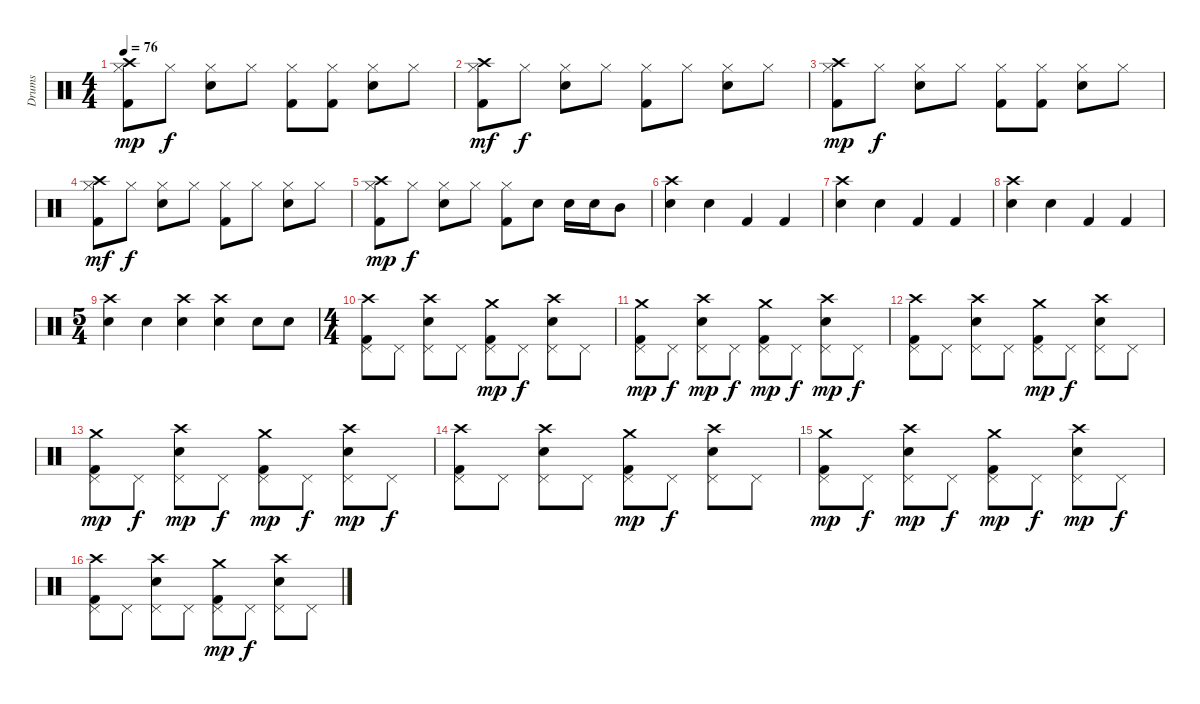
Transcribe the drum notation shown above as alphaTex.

\track ("Drums" "Drums") {instrument percussion}
\staff {score}
\articulation defaults
\ts (4 4)
\tempo 76
\clef neutral
\ks c
("Crash high (hit)" "Hi-Hat (closed)" "Kick (hit) 2").8{dy mp} "Hi-Hat (closed)".8{dy f} ("Hi-Hat (closed)" "Snare (hit) 2").8 "Hi-Hat (closed)".8 ("Hi-Hat (closed)" "Kick (hit) 2").8 ("Hi-Hat (closed)" "Kick (hit) 2").8 ("Hi-Hat (closed)" "Snare (hit) 2").8 "Hi-Hat (closed)".8 |
("Crash high (hit)" "Hi-Hat (closed)" "Kick (hit) 2").8{dy mf} "Hi-Hat (closed)".8{dy f} ("Hi-Hat (closed)" "Snare (hit) 2").8 "Hi-Hat (closed)".8 ("Hi-Hat (closed)" "Kick (hit) 2").8 "Hi-Hat (closed)".8 ("Hi-Hat (closed)" "Snare (hit) 2").8 "Hi-Hat (closed)".8 |
("Crash high (hit)" "Hi-Hat (closed)" "Kick (hit) 2").8{dy mp} "Hi-Hat (closed)".8{dy f} ("Hi-Hat (closed)" "Snare (hit) 2").8 "Hi-Hat (closed)".8 ("Hi-Hat (closed)" "Kick (hit) 2").8 ("Hi-Hat (closed)" "Kick (hit) 2").8 ("Hi-Hat (closed)" "Snare (hit) 2").8 "Hi-Hat (closed)".8 |
("Crash high (hit)" "Hi-Hat (closed)" "Kick (hit) 2").8{dy mf} "Hi-Hat (closed)".8{dy f} ("Hi-Hat (closed)" "Snare (hit) 2").8 "Hi-Hat (closed)".8 ("Hi-Hat (closed)" "Kick (hit) 2").8 "Hi-Hat (closed)".8 ("Hi-Hat (closed)" "Snare (hit) 2").8 "Hi-Hat (closed)".8 |
("Crash high (hit)" "Hi-Hat (closed)" "Kick (hit) 2").8{dy mp} "Hi-Hat (closed)".8{dy f} ("Hi-Hat (closed)" "Snare (hit) 2").8 "Hi-Hat (closed)".8 ("Hi-Hat (closed)" "Kick (hit) 2").8 "Snare (hit) 2".8 "Snare (hit) 2".16 "Snare (hit) 2".16 "Mid Tom (hit)".8 |
("Crash high (hit)" "Snare (hit) 2").4 "Snare (hit) 2".4 "Kick (hit) 2".4 "Kick (hit) 2".4 |
("Crash high (hit)" "Snare (hit) 2").4 "Snare (hit) 2".4 "Kick (hit) 2".4 "Kick (hit) 2".4 |
("Crash high (hit)" "Snare (hit) 2").4 "Snare (hit) 2".4 "Kick (hit) 2".4 "Kick (hit) 2".4 |
\ts (5 4)
("Crash high (hit)" "Snare (hit) 2").4 "Snare (hit) 2".4 ("Crash high (hit)" "Snare (hit) 2").4 ("Crash high (hit)" "Snare (hit) 2").4 "Snare (hit) 2".8 "Snare (hit) 2".8 |
\ts (4 4)
("Crash high (hit)" "Pedal Hi-Hat (hit)" "Kick (hit) 2").8 "Pedal Hi-Hat (hit)".8 ("Crash high (hit)" "Pedal Hi-Hat (hit)" "Snare (hit) 2").8 "Pedal Hi-Hat (hit)".8 ("Crash medium (hit)" "Pedal Hi-Hat (hit)" "Kick (hit) 2").8{dy mp} "Pedal Hi-Hat (hit)".8{dy f} ("Crash high (hit)" "Pedal Hi-Hat (hit)" "Snare (hit) 2").8 "Pedal Hi-Hat (hit)".8 |
("Crash medium (hit)" "Pedal Hi-Hat (hit)" "Kick (hit) 2").8{dy mp} "Pedal Hi-Hat (hit)".8{dy f} ("Crash high (hit)" "Pedal Hi-Hat (hit)" "Snare (hit) 2").8{dy mp} "Pedal Hi-Hat (hit)".8{dy f} ("Crash medium (hit)" "Pedal Hi-Hat (hit)" "Kick (hit) 2").8{dy mp} "Pedal Hi-Hat (hit)".8{dy f} ("Crash high (hit)" "Pedal Hi-Hat (hit)" "Snare (hit) 2").8{dy mp} "Pedal Hi-Hat (hit)".8{dy f} |
("Crash high (hit)" "Pedal Hi-Hat (hit)" "Kick (hit) 2").8 "Pedal Hi-Hat (hit)".8 ("Crash high (hit)" "Pedal Hi-Hat (hit)" "Snare (hit) 2").8 "Pedal Hi-Hat (hit)".8 ("Crash medium (hit)" "Pedal Hi-Hat (hit)" "Kick (hit) 2").8{dy mp} "Pedal Hi-Hat (hit)".8{dy f} ("Crash high (hit)" "Pedal Hi-Hat (hit)" "Snare (hit) 2").8 "Pedal Hi-Hat (hit)".8 |
("Crash medium (hit)" "Pedal Hi-Hat (hit)" "Kick (hit) 2").8{dy mp} "Pedal Hi-Hat (hit)".8{dy f} ("Crash high (hit)" "Pedal Hi-Hat (hit)" "Snare (hit) 2").8{dy mp} "Pedal Hi-Hat (hit)".8{dy f} ("Crash medium (hit)" "Pedal Hi-Hat (hit)" "Kick (hit) 2").8{dy mp} "Pedal Hi-Hat (hit)".8{dy f} ("Crash high (hit)" "Pedal Hi-Hat (hit)" "Snare (hit) 2").8{dy mp} "Pedal Hi-Hat (hit)".8{dy f} |
("Crash high (hit)" "Pedal Hi-Hat (hit)" "Kick (hit) 2").8 "Pedal Hi-Hat (hit)".8 ("Crash high (hit)" "Pedal Hi-Hat (hit)" "Snare (hit) 2").8 "Pedal Hi-Hat (hit)".8 ("Crash medium (hit)" "Pedal Hi-Hat (hit)" "Kick (hit) 2").8{dy mp} "Pedal Hi-Hat (hit)".8{dy f} ("Crash high (hit)" "Pedal Hi-Hat (hit)" "Snare (hit) 2").8 "Pedal Hi-Hat (hit)".8 |
("Crash medium (hit)" "Pedal Hi-Hat (hit)" "Kick (hit) 2").8{dy mp} "Pedal Hi-Hat (hit)".8{dy f} ("Crash high (hit)" "Pedal Hi-Hat (hit)" "Snare (hit) 2").8{dy mp} "Pedal Hi-Hat (hit)".8{dy f} ("Crash medium (hit)" "Pedal Hi-Hat (hit)" "Kick (hit) 2").8{dy mp} "Pedal Hi-Hat (hit)".8{dy f} ("Crash high (hit)" "Pedal Hi-Hat (hit)" "Snare (hit) 2").8{dy mp} "Pedal Hi-Hat (hit)".8{dy f} |
("Crash high (hit)" "Pedal Hi-Hat (hit)" "Kick (hit) 2").8 "Pedal Hi-Hat (hit)".8 ("Crash high (hit)" "Pedal Hi-Hat (hit)" "Snare (hit) 2").8 "Pedal Hi-Hat (hit)".8 ("Crash medium (hit)" "Pedal Hi-Hat (hit)" "Kick (hit) 2").8{dy mp} "Pedal Hi-Hat (hit)".8{dy f} ("Crash high (hit)" "Pedal Hi-Hat (hit)" "Snare (hit) 2").8 "Pedal Hi-Hat (hit)".8
